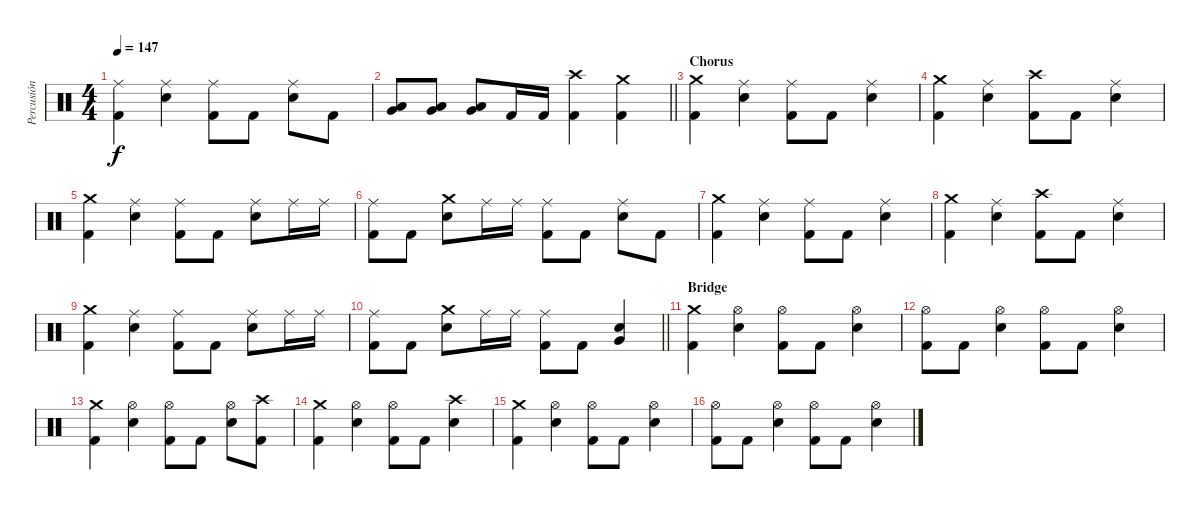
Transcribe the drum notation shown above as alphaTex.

\track ("Percusión" "Percusión") {instrument percussion}
\staff {score}
\articulation defaults
\ts (4 4)
\tempo 147
\clef neutral
\ks c
("Ride (middle)" "Kick (hit) 2").4{dy f} ("Ride (middle)" "Snare (hit) 2").4 ("Ride (middle)" "Kick (hit) 2").8 "Kick (hit) 2".8 ("Ride (middle)" "Snare (hit) 2").8 "Kick (hit) 2".8 |
\barLineRight lightlight
("Low Tom (hit)" "Very Low Tom (hit)").8 ("Low Tom (hit)" "Very Low Tom (hit)").8 ("Low Tom (hit)" "Very Low Tom (hit)").8 "Kick (hit) 2".16 "Kick (hit) 2".16 ("Crash high (hit)" "Kick (hit) 2").4 ("Crash medium (hit)" "Kick (hit) 2").4 |
\section ("" "Chorus")
("Crash medium (hit)" "Kick (hit) 2").4 ("Ride (middle)" "Snare (hit) 2").4 ("Ride (middle)" "Kick (hit) 2").8 "Kick (hit) 2".8 ("Ride (middle)" "Snare (hit) 2").4 |
("Crash medium (hit)" "Kick (hit) 2").4 ("Ride (middle)" "Snare (hit) 2").4 ("Crash high (hit)" "Kick (hit) 2").8 "Kick (hit) 2".8 ("Ride (middle)" "Snare (hit) 2").4 |
("Crash medium (hit)" "Kick (hit) 2").4 ("Ride (middle)" "Snare (hit) 2").4 ("Ride (middle)" "Kick (hit) 2").8 "Kick (hit) 2".8 ("Ride (middle)" "Snare (hit) 2").8 "Ride (middle)".16 "Ride (middle)".16 |
("Ride (middle)" "Kick (hit) 2").8 "Kick (hit) 2".8 ("Crash medium (hit)" "Snare (hit) 2").8 "Ride (middle)".16 "Ride (middle)".16 ("Ride (middle)" "Kick (hit) 2").8 "Kick (hit) 2".8 ("Ride (middle)" "Snare (hit) 2").8 "Kick (hit) 2".8 |
("Crash medium (hit)" "Kick (hit) 2").4 ("Ride (middle)" "Snare (hit) 2").4 ("Ride (middle)" "Kick (hit) 2").8 "Kick (hit) 2".8 ("Ride (middle)" "Snare (hit) 2").4 |
("Crash medium (hit)" "Kick (hit) 2").4 ("Ride (middle)" "Snare (hit) 2").4 ("Crash high (hit)" "Kick (hit) 2").8 "Kick (hit) 2".8 ("Ride (middle)" "Snare (hit) 2").4 |
("Crash medium (hit)" "Kick (hit) 2").4 ("Ride (middle)" "Snare (hit) 2").4 ("Ride (middle)" "Kick (hit) 2").8 "Kick (hit) 2".8 ("Ride (middle)" "Snare (hit) 2").8 "Ride (middle)".16 "Ride (middle)".16 |
\barLineRight lightlight
("Ride (middle)" "Kick (hit) 2").8 "Kick (hit) 2".8 ("Crash medium (hit)" "Snare (hit) 2").8 "Ride (middle)".16 "Ride (middle)".16 ("Ride (middle)" "Kick (hit) 2").8 "Kick (hit) 2".8 ("Very Low Tom (hit)" "Snare (hit) 2").4 |
\section ("" "Bridge")
("Crash medium (hit)" "Kick (hit) 2").4 ("Hi-Hat (open)" "Snare (hit) 2").4 ("Hi-Hat (open)" "Kick (hit) 2").8 "Kick (hit) 2".8 ("Hi-Hat (open)" "Snare (hit) 2").4 |
("Hi-Hat (open)" "Kick (hit) 2").8 "Kick (hit) 2".8 ("Hi-Hat (open)" "Snare (hit) 2").4 ("Hi-Hat (open)" "Kick (hit) 2").8 "Kick (hit) 2".8 ("Hi-Hat (open)" "Snare (hit) 2").4 |
("Crash medium (hit)" "Kick (hit) 2").4 ("Hi-Hat (open)" "Snare (hit) 2").4 ("Hi-Hat (open)" "Kick (hit) 2").8 "Kick (hit) 2".8 ("Hi-Hat (open)" "Snare (hit) 2").8 ("Crash high (hit)" "Kick (hit) 2").8 |
("Crash medium (hit)" "Kick (hit) 2").4 ("Hi-Hat (open)" "Snare (hit) 2").4 ("Hi-Hat (open)" "Kick (hit) 2").8 "Kick (hit) 2".8 ("Crash high (hit)" "Snare (hit) 2").4 |
("Crash medium (hit)" "Kick (hit) 2").4 ("Hi-Hat (open)" "Snare (hit) 2").4 ("Hi-Hat (open)" "Kick (hit) 2").8 "Kick (hit) 2".8 ("Hi-Hat (open)" "Snare (hit) 2").4 |
("Hi-Hat (open)" "Kick (hit) 2").8 "Kick (hit) 2".8 ("Hi-Hat (open)" "Snare (hit) 2").4 ("Hi-Hat (open)" "Kick (hit) 2").8 "Kick (hit) 2".8 ("Hi-Hat (open)" "Snare (hit) 2").4
